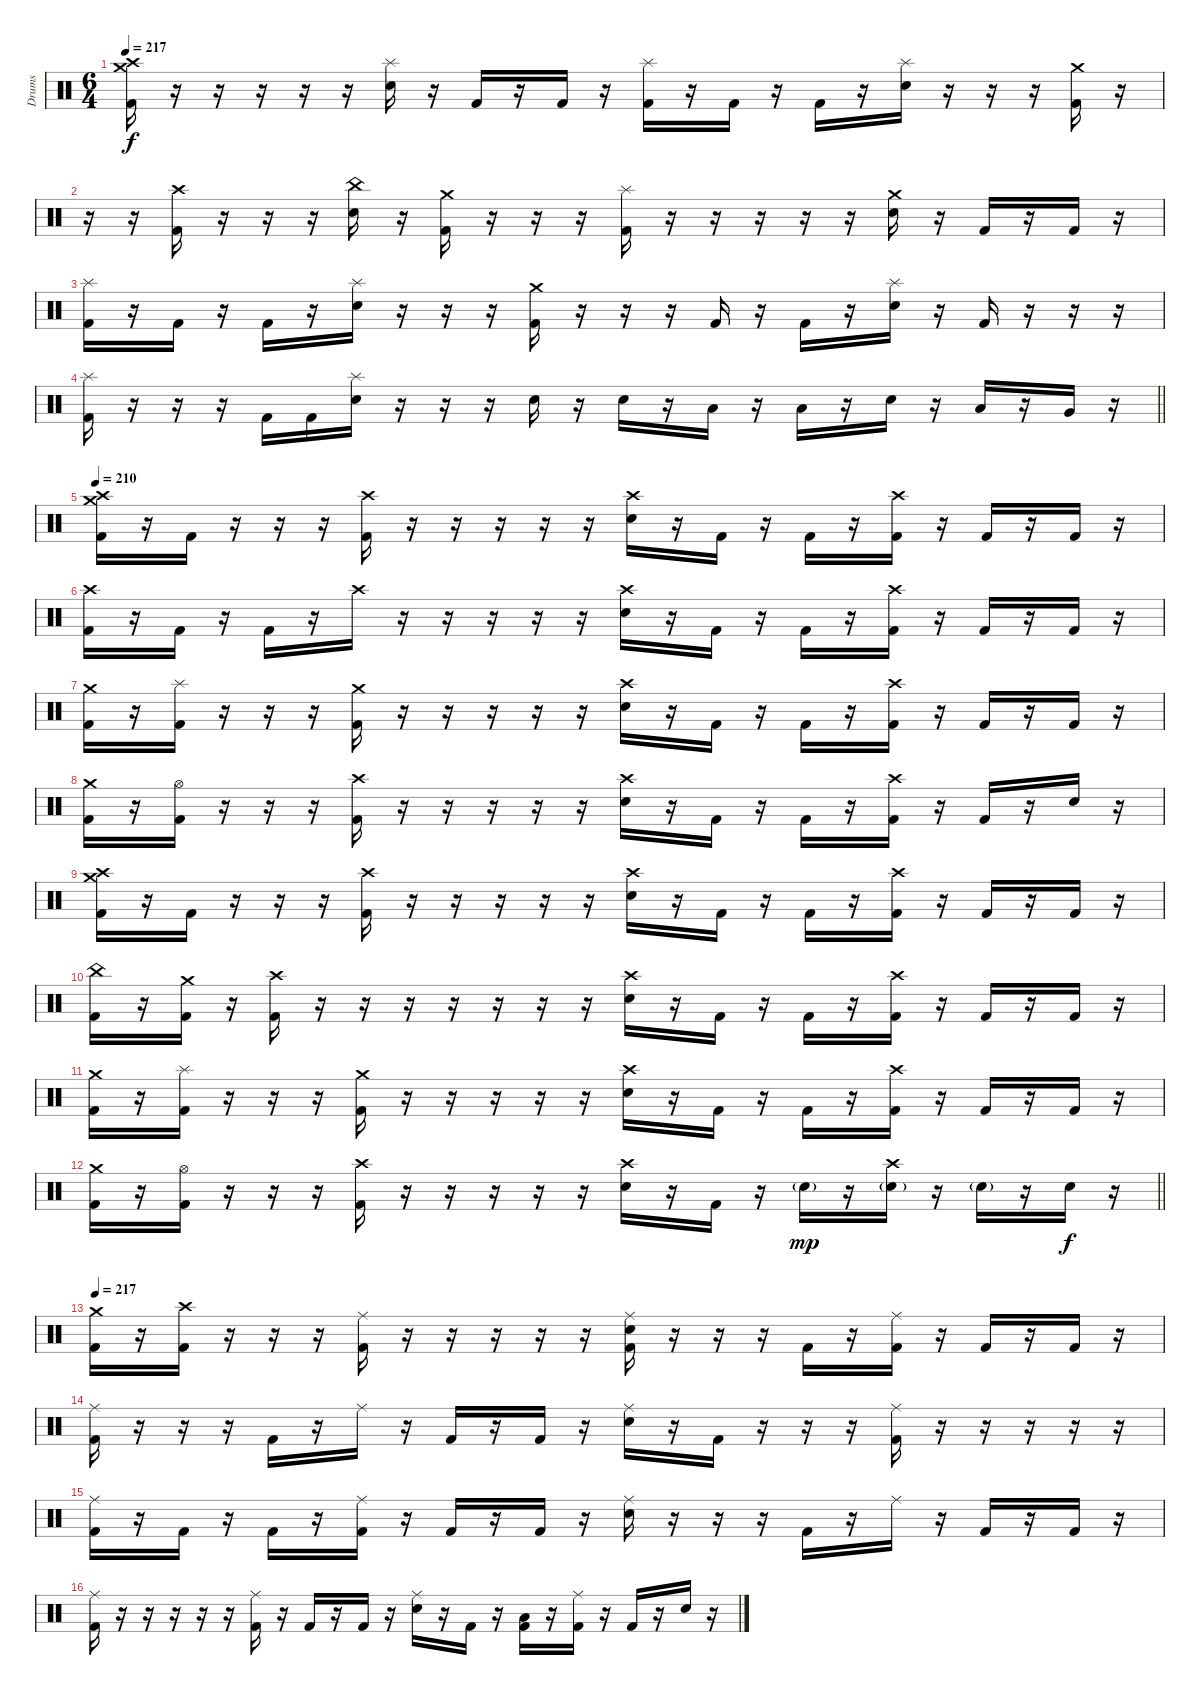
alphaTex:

\track ("Drums" "Drums") {instrument percussion}
\staff {score}
\articulation defaults
\ts (6 4)
\tempo 217
\clef neutral
\ks c
("Crash medium (hit)" "Crash high (hit)" "Kick (hit) 2").16{dy f} r.16 r.16 r.16 r.16 r.16 ("Splash (hit)" "Electric Snare (hit)").16 r.16 "Kick (hit) 2".16 r.16 "Kick (hit) 2".16 r.16 ("Splash (hit)" "Kick (hit) 2").16 r.16 "Kick (hit) 2".16 r.16 "Kick (hit) 2".16 r.16 ("Splash (hit)" "Electric Snare (hit)").16 r.16 r.16 r.16 ("Crash medium (hit)" "Kick (hit) 2").16 r.16 |
r.16 r.16 ("Crash high (hit)" "Kick (hit) 2").16 r.16 r.16 r.16 ("China (hit)" "Electric Snare (hit)").16 r.16 ("Crash medium (hit)" "Kick (hit) 2").16 r.16 r.16 r.16 ("Splash (hit)" "Kick (hit) 2").16 r.16 r.16 r.16 r.16 r.16 ("Crash medium (hit)" "Electric Snare (hit)").16 r.16 "Kick (hit) 2".16 r.16 "Kick (hit) 2".16 r.16 |
("Splash (hit)" "Kick (hit) 2").16 r.16 "Kick (hit) 2".16 r.16 "Kick (hit) 2".16 r.16 ("Splash (hit)" "Electric Snare (hit)").16 r.16 r.16 r.16 ("Crash medium (hit)" "Kick (hit) 2").16 r.16 r.16 r.16 "Kick (hit) 2".16 r.16 "Kick (hit) 2".16 r.16 ("Splash (hit)" "Electric Snare (hit)").16 r.16 "Kick (hit) 2".16 r.16 r.16 r.16 |
\barLineRight lightlight
("Splash (hit)" "Kick (hit) 2").16 r.16 r.16 r.16 "Kick (hit) 2".16 "Kick (hit) 2".16 ("Splash (hit)" "Electric Snare (hit)").16 r.16 r.16 r.16 "Electric Snare (hit)".16 r.16 "Electric Snare (hit)".16 r.16 "Low Floor Tom (hit)".16 r.16 "Low Floor Tom (hit)".16 r.16 "Electric Snare (hit)".16 r.16 "Low Tom (hit)".16 r.16 "Very Low Tom (hit)".16 r.16 |
\section ("" "")
\tempo 210
("Crash medium (hit)" "Crash high (hit)" "Kick (hit) 2").16 r.16 "Kick (hit) 2".16 r.16 r.16 r.16 ("Crash high (hit)" "Kick (hit) 2").16 r.16 r.16 r.16 r.16 r.16 ("Crash high (hit)" "Electric Snare (hit)").16 r.16 "Kick (hit) 2".16 r.16 "Kick (hit) 2".16 r.16 ("Crash high (hit)" "Kick (hit) 2").16 r.16 "Kick (hit) 2".16 r.16 "Kick (hit) 2".16 r.16 |
("Crash high (hit)" "Kick (hit) 2").16 r.16 "Kick (hit) 2".16 r.16 "Kick (hit) 2".16 r.16 "Crash high (hit)".16 r.16 r.16 r.16 r.16 r.16 ("Crash high (hit)" "Electric Snare (hit)").16 r.16 "Kick (hit) 2".16 r.16 "Kick (hit) 2".16 r.16 ("Crash high (hit)" "Kick (hit) 2").16 r.16 "Kick (hit) 2".16 r.16 "Kick (hit) 2".16 r.16 |
("Crash medium (hit)" "Kick (hit) 2").16 r.16 ("Splash (hit)" "Kick (hit) 2").16 r.16 r.16 r.16 ("Crash medium (hit)" "Kick (hit) 2").16 r.16 r.16 r.16 r.16 r.16 ("Crash high (hit)" "Electric Snare (hit)").16 r.16 "Kick (hit) 2".16 r.16 "Kick (hit) 2".16 r.16 ("Crash high (hit)" "Kick (hit) 2").16 r.16 "Kick (hit) 2".16 r.16 "Kick (hit) 2".16 r.16 |
("Crash medium (hit)" "Kick (hit) 2").16 r.16 ("Hi-Hat (open)" "Kick (hit) 2").16 r.16 r.16 r.16 ("Crash high (hit)" "Kick (hit) 2").16 r.16 r.16 r.16 r.16 r.16 ("Crash high (hit)" "Electric Snare (hit)").16 r.16 "Kick (hit) 2".16 r.16 "Kick (hit) 2".16 r.16 ("Crash high (hit)" "Kick (hit) 2").16 r.16 "Kick (hit) 2".16 r.16 "Electric Snare (hit)".16 r.16 |
("Crash medium (hit)" "Crash high (hit)" "Kick (hit) 2").16 r.16 "Kick (hit) 2".16 r.16 r.16 r.16 ("Crash high (hit)" "Kick (hit) 2").16 r.16 r.16 r.16 r.16 r.16 ("Crash high (hit)" "Electric Snare (hit)").16 r.16 "Kick (hit) 2".16 r.16 "Kick (hit) 2".16 r.16 ("Crash high (hit)" "Kick (hit) 2").16 r.16 "Kick (hit) 2".16 r.16 "Kick (hit) 2".16 r.16 |
("China (hit)" "Kick (hit) 2").16 r.16 ("Crash medium (hit)" "Kick (hit) 2").16 r.16 ("Crash high (hit)" "Kick (hit) 2").16 r.16 r.16 r.16 r.16 r.16 r.16 r.16 ("Crash high (hit)" "Electric Snare (hit)").16 r.16 "Kick (hit) 2".16 r.16 "Kick (hit) 2".16 r.16 ("Crash high (hit)" "Kick (hit) 2").16 r.16 "Kick (hit) 2".16 r.16 "Kick (hit) 2".16 r.16 |
("Crash medium (hit)" "Kick (hit) 2").16 r.16 ("Splash (hit)" "Kick (hit) 2").16 r.16 r.16 r.16 ("Crash medium (hit)" "Kick (hit) 2").16 r.16 r.16 r.16 r.16 r.16 ("Crash high (hit)" "Electric Snare (hit)").16 r.16 "Kick (hit) 2".16 r.16 "Kick (hit) 2".16 r.16 ("Crash high (hit)" "Kick (hit) 2").16 r.16 "Kick (hit) 2".16 r.16 "Kick (hit) 2".16 r.16 |
\barLineRight lightlight
("Crash medium (hit)" "Kick (hit) 2").16 r.16 ("Hi-Hat (open)" "Kick (hit) 2").16 r.16 r.16 r.16 ("Crash high (hit)" "Kick (hit) 2").16 r.16 r.16 r.16 r.16 r.16 ("Crash high (hit)" "Electric Snare (hit)").16 r.16 "Kick (hit) 2".16 r.16 "Electric Snare (hit)"{g}.16{dy mp} r.16 ("Crash high (hit)" "Electric Snare (hit)"{g}).16 r.16 "Electric Snare (hit)"{g}.16 r.16 "Electric Snare (hit)".16{dy f} r.16 |
\section ("" "")
\tempo 217
("Crash medium (hit)" "Kick (hit) 2").16 r.16 ("Crash high (hit)" "Kick (hit) 2").16 r.16 r.16 r.16 ("Ride (middle)" "Kick (hit) 2").16 r.16 r.16 r.16 r.16 r.16 ("Ride (middle)" "Electric Snare (hit)" "Kick (hit) 2").16 r.16 r.16 r.16 "Kick (hit) 2".16 r.16 ("Ride (middle)" "Kick (hit) 2").16 r.16 "Kick (hit) 2".16 r.16 "Kick (hit) 2".16 r.16 |
("Ride (middle)" "Kick (hit) 2").16 r.16 r.16 r.16 "Kick (hit) 2".16 r.16 "Ride (middle)".16 r.16 "Kick (hit) 2".16 r.16 "Kick (hit) 2".16 r.16 ("Ride (middle)" "Electric Snare (hit)").16 r.16 "Kick (hit) 2".16 r.16 r.16 r.16 ("Ride (middle)" "Kick (hit) 2").16 r.16 r.16 r.16 r.16 r.16 |
("Ride (middle)" "Kick (hit) 2").16 r.16 "Kick (hit) 2".16 r.16 "Kick (hit) 2".16 r.16 ("Ride (middle)" "Kick (hit) 2").16 r.16 "Kick (hit) 2".16 r.16 "Kick (hit) 2".16 r.16 ("Ride (middle)" "Electric Snare (hit)").16 r.16 r.16 r.16 "Kick (hit) 2".16 r.16 "Ride (middle)".16 r.16 "Kick (hit) 2".16 r.16 "Kick (hit) 2".16 r.16 |
("Ride (middle)" "Kick (hit) 2").16 r.16 r.16 r.16 r.16 r.16 ("Ride (middle)" "Kick (hit) 2").16 r.16 "Kick (hit) 2".16 r.16 "Kick (hit) 2".16 r.16 ("Ride (middle)" "Electric Snare (hit)").16 r.16 "Kick (hit) 2".16 r.16 ("Low Floor Tom (hit)" "Kick (hit) 2").16 r.16 ("Ride (middle)" "Kick (hit) 2").16 r.16 "Kick (hit) 2".16 r.16 "Electric Snare (hit)".16 r.16
